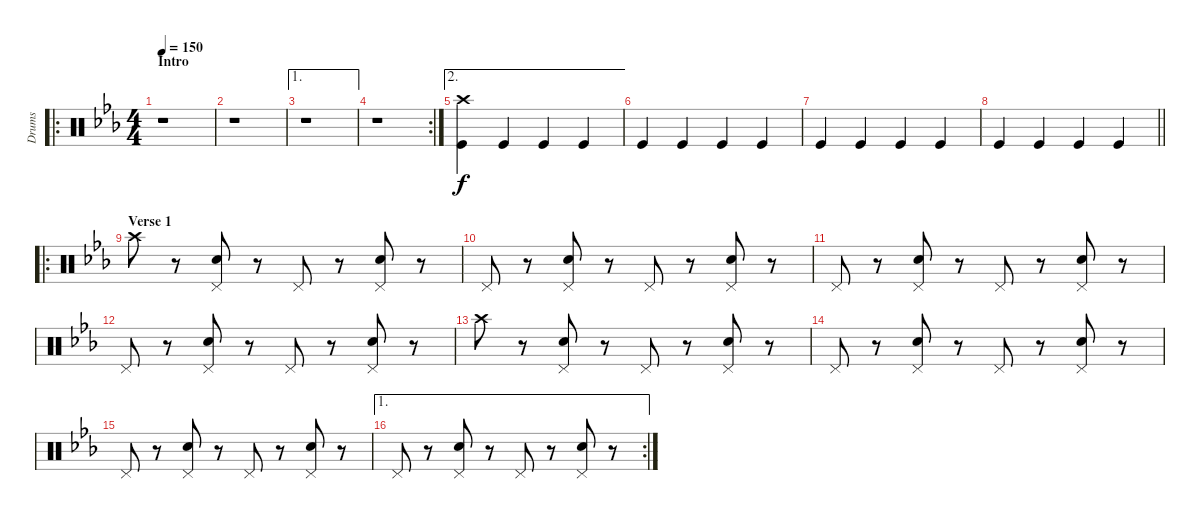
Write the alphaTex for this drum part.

\track ("Drums" "Drums") {instrument percussion}
\staff {score}
\articulation defaults
\ro
\ts (4 4)
\section ("" "Intro")
\tempo 150
\clef neutral
\ks cminor
r.1{dy f} |
r.1 |
\ae 1
r.1 |
\rc 2
r.1 |
\ae 2
("Crash high (hit)" "Kick (hit)").4 "Kick (hit)".4 "Kick (hit)".4 "Kick (hit)".4 |
"Kick (hit)".4 "Kick (hit)".4 "Kick (hit)".4 "Kick (hit)".4 |
"Kick (hit)".4 "Kick (hit)".4 "Kick (hit)".4 "Kick (hit)".4 |
\barLineRight lightlight "Kick (hit)".4 "Kick (hit)".4 "Kick (hit)".4 "Kick (hit)".4
|
\ro
\section ("" "Verse 1")
"Crash high (hit)".8 r.8 ("Pedal Hi-Hat (hit)" "Electric Snare (hit)").8 r.8 "Pedal Hi-Hat (hit)".8 r.8 ("Pedal Hi-Hat (hit)" "Electric Snare (hit)").8 r.8 |
"Pedal Hi-Hat (hit)".8 r.8 ("Pedal Hi-Hat (hit)" "Electric Snare (hit)").8 r.8 "Pedal Hi-Hat (hit)".8 r.8 ("Pedal Hi-Hat (hit)" "Electric Snare (hit)").8 r.8 |
"Pedal Hi-Hat (hit)".8 r.8 ("Pedal Hi-Hat (hit)" "Electric Snare (hit)").8 r.8 "Pedal Hi-Hat (hit)".8 r.8 ("Pedal Hi-Hat (hit)" "Electric Snare (hit)").8 r.8 |
"Pedal Hi-Hat (hit)".8 r.8 ("Pedal Hi-Hat (hit)" "Electric Snare (hit)").8 r.8 "Pedal Hi-Hat (hit)".8 r.8 ("Pedal Hi-Hat (hit)" "Electric Snare (hit)").8 r.8 |
"Crash high (hit)".8 r.8 ("Pedal Hi-Hat (hit)" "Electric Snare (hit)").8 r.8 "Pedal Hi-Hat (hit)".8 r.8 ("Pedal Hi-Hat (hit)" "Electric Snare (hit)").8 r.8 |
"Pedal Hi-Hat (hit)".8 r.8 ("Pedal Hi-Hat (hit)" "Electric Snare (hit)").8 r.8 "Pedal Hi-Hat (hit)".8 r.8 ("Pedal Hi-Hat (hit)" "Electric Snare (hit)").8 r.8 |
"Pedal Hi-Hat (hit)".8 r.8 ("Pedal Hi-Hat (hit)" "Electric Snare (hit)").8 r.8 "Pedal Hi-Hat (hit)".8 r.8 ("Pedal Hi-Hat (hit)" "Electric Snare (hit)").8 r.8 |
\ae 1
\rc 2 "Pedal Hi-Hat (hit)".8
r.8 ("Pedal Hi-Hat (hit)" "Electric Snare (hit)").8 r.8 "Pedal Hi-Hat (hit)".8 r.8 ("Pedal Hi-Hat (hit)" "Electric Snare (hit)").8 r.8
